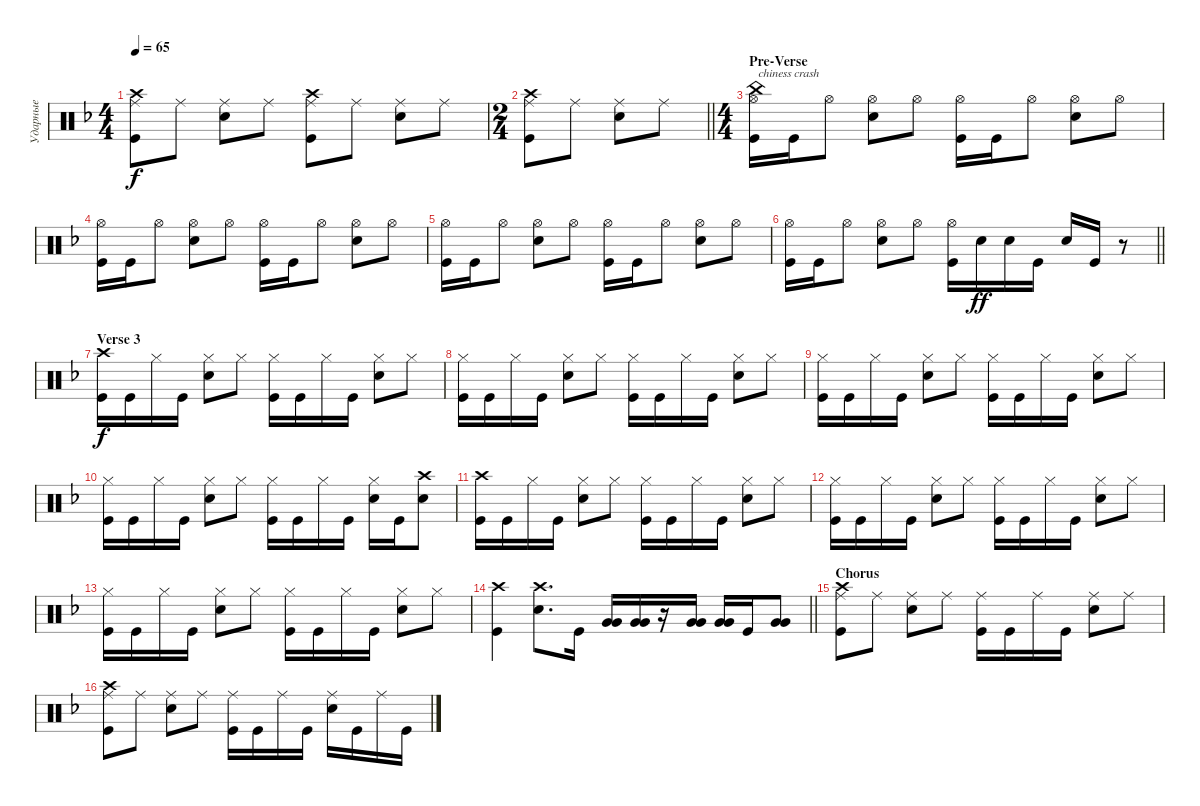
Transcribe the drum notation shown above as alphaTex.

\track ("Ударные" "Ударные") {instrument percussion}
\staff {score}
\articulation defaults
\ts (4 4)
\tempo 65
\clef neutral
\ks dminor
("Kick (hit)" "Crash high (hit)" "Ride (middle)").8{dy f} "Ride (middle)".8 ("Ride (middle)" "Snare (hit) 2").8 "Ride (middle)".8 ("Kick (hit)" "Crash high (hit)" "Ride (middle)").8 "Ride (middle)".8 ("Ride (middle)" "Snare (hit) 2").8 "Ride (middle)".8 |
\ts (2 4)
\barLineRight lightlight
("Kick (hit)" "Crash high (hit)" "Ride (middle)").8 "Ride (middle)".8 ("Ride (middle)" "Snare (hit) 2").8 "Ride (middle)".8 |
\ts (4 4)
\section ("" "Pre-Verse")
("Kick (hit)" "Hi-Hat (open)" "China (hit)").16{txt "chiness crash"} "Kick (hit)".16 "Hi-Hat (open)".8 ("Snare (hit) 2" "Hi-Hat (open)").8 "Hi-Hat (open)".8 ("Kick (hit)" "Hi-Hat (open)").16 "Kick (hit)".16 "Hi-Hat (open)".8 ("Snare (hit) 2" "Hi-Hat (open)").8 "Hi-Hat (open)".8 |
("Kick (hit)" "Hi-Hat (open)").16 "Kick (hit)".16 "Hi-Hat (open)".8 ("Snare (hit) 2" "Hi-Hat (open)").8 "Hi-Hat (open)".8 ("Kick (hit)" "Hi-Hat (open)").16 "Kick (hit)".16 "Hi-Hat (open)".8 ("Snare (hit) 2" "Hi-Hat (open)").8 "Hi-Hat (open)".8 |
("Kick (hit)" "Hi-Hat (open)").16 "Kick (hit)".16 "Hi-Hat (open)".8 ("Snare (hit) 2" "Hi-Hat (open)").8 "Hi-Hat (open)".8 ("Kick (hit)" "Hi-Hat (open)").16 "Kick (hit)".16 "Hi-Hat (open)".8 ("Snare (hit) 2" "Hi-Hat (open)").8 "Hi-Hat (open)".8 |
\barLineRight lightlight
("Kick (hit)" "Hi-Hat (open)").16 "Kick (hit)".16 "Hi-Hat (open)".8 ("Snare (hit) 2" "Hi-Hat (open)").8 "Hi-Hat (open)".8 ("Kick (hit)" "Hi-Hat (open)").16 "Snare (hit) 2".16{dy ff} "Snare (hit) 2".16 "Kick (hit)".16 "Snare (hit) 2".16 "Kick (hit)".16 r.8 |
\section ("" "Verse 3")
("Kick (hit)" "Crash high (hit)").16{dy f} "Kick (hit)".16 "Hi-Hat (closed)".16 "Kick (hit)".16 ("Snare (hit) 2" "Hi-Hat (closed)").8 "Hi-Hat (closed)".8 ("Kick (hit)" "Hi-Hat (closed)").16 "Kick (hit)".16 "Hi-Hat (closed)".16 "Kick (hit)".16 ("Snare (hit) 2" "Hi-Hat (closed)").8 "Hi-Hat (closed)".8 |
("Kick (hit)" "Hi-Hat (closed)").16 "Kick (hit)".16 "Hi-Hat (closed)".16 "Kick (hit)".16 ("Snare (hit) 2" "Hi-Hat (closed)").8 "Hi-Hat (closed)".8 ("Kick (hit)" "Hi-Hat (closed)").16 "Kick (hit)".16 "Hi-Hat (closed)".16 "Kick (hit)".16 ("Snare (hit) 2" "Hi-Hat (closed)").8 "Hi-Hat (closed)".8 |
("Kick (hit)" "Hi-Hat (closed)").16 "Kick (hit)".16 "Hi-Hat (closed)".16 "Kick (hit)".16 ("Snare (hit) 2" "Hi-Hat (closed)").8 "Hi-Hat (closed)".8 ("Kick (hit)" "Hi-Hat (closed)").16 "Kick (hit)".16 "Hi-Hat (closed)".16 "Kick (hit)".16 ("Snare (hit) 2" "Hi-Hat (closed)").8 "Hi-Hat (closed)".8 |
("Kick (hit)" "Hi-Hat (closed)").16 "Kick (hit)".16 "Hi-Hat (closed)".16 "Kick (hit)".16 ("Snare (hit) 2" "Hi-Hat (closed)").8 "Hi-Hat (closed)".8 ("Hi-Hat (closed)" "Kick (hit)").16 "Kick (hit)".16 "Hi-Hat (closed)".16 "Kick (hit)".16 ("Hi-Hat (closed)" "Snare (hit) 2").16 "Kick (hit)".16 ("Crash high (hit)" "Snare (hit) 2").8 |
("Kick (hit)" "Crash high (hit)").16 "Kick (hit)".16 "Hi-Hat (closed)".16 "Kick (hit)".16 ("Snare (hit) 2" "Hi-Hat (closed)").8 "Hi-Hat (closed)".8 ("Kick (hit)" "Hi-Hat (closed)").16 "Kick (hit)".16 "Hi-Hat (closed)".16 "Kick (hit)".16 ("Snare (hit) 2" "Hi-Hat (closed)").8 "Hi-Hat (closed)".8 |
("Kick (hit)" "Hi-Hat (closed)").16 "Kick (hit)".16 "Hi-Hat (closed)".16 "Kick (hit)".16 ("Snare (hit) 2" "Hi-Hat (closed)").8 "Hi-Hat (closed)".8 ("Kick (hit)" "Hi-Hat (closed)").16 "Kick (hit)".16 "Hi-Hat (closed)".16 "Kick (hit)".16 ("Snare (hit) 2" "Hi-Hat (closed)").8 "Hi-Hat (closed)".8 |
("Kick (hit)" "Hi-Hat (closed)").16 "Kick (hit)".16 "Hi-Hat (closed)".16 "Kick (hit)".16 ("Snare (hit) 2" "Hi-Hat (closed)").8 "Hi-Hat (closed)".8 ("Kick (hit)" "Hi-Hat (closed)").16 "Kick (hit)".16 "Hi-Hat (closed)".16 "Kick (hit)".16 ("Snare (hit) 2" "Hi-Hat (closed)").8 "Hi-Hat (closed)".8 |
\barLineRight lightlight
("Kick (hit)" "Crash high (hit)").4 ("Snare (hit) 2" "Crash high (hit)").8{d} "Kick (hit)".16 ("Very Low Tom (hit)" "Very Low Tom (hit)").16{bd 480} ("Very Low Tom (hit)" "Very Low Tom (hit)").16{bd 480} r.16 ("Very Low Tom (hit)" "Very Low Tom (hit)").16{bd 480} ("Very Low Tom (hit)" "Very Low Tom (hit)").16{bd 480} "Kick (hit)".16 ("Very Low Tom (hit)" "Very Low Tom (hit)").8{bd 480} |
\section ("" "Chorus")
("Kick (hit)" "Crash high (hit)" "Ride (middle)").8 "Ride (middle)".8 ("Ride (middle)" "Snare (hit) 2").8 "Ride (middle)".8 ("Ride (middle)" "Kick (hit)").16 "Kick (hit)".16 "Ride (middle)".16 "Kick (hit)".16 ("Snare (hit) 2" "Ride (middle)").8 "Ride (middle)".8 |
("Kick (hit)" "Crash high (hit)" "Ride (middle)").8 "Ride (middle)".8 ("Ride (middle)" "Snare (hit) 2").8 "Ride (middle)".8 ("Ride (middle)" "Kick (hit)").16 "Kick (hit)".16 "Ride (middle)".16 "Kick (hit)".16 ("Snare (hit) 2" "Ride (middle)").16 "Kick (hit)".16 "Ride (middle)".16 "Kick (hit)".16
